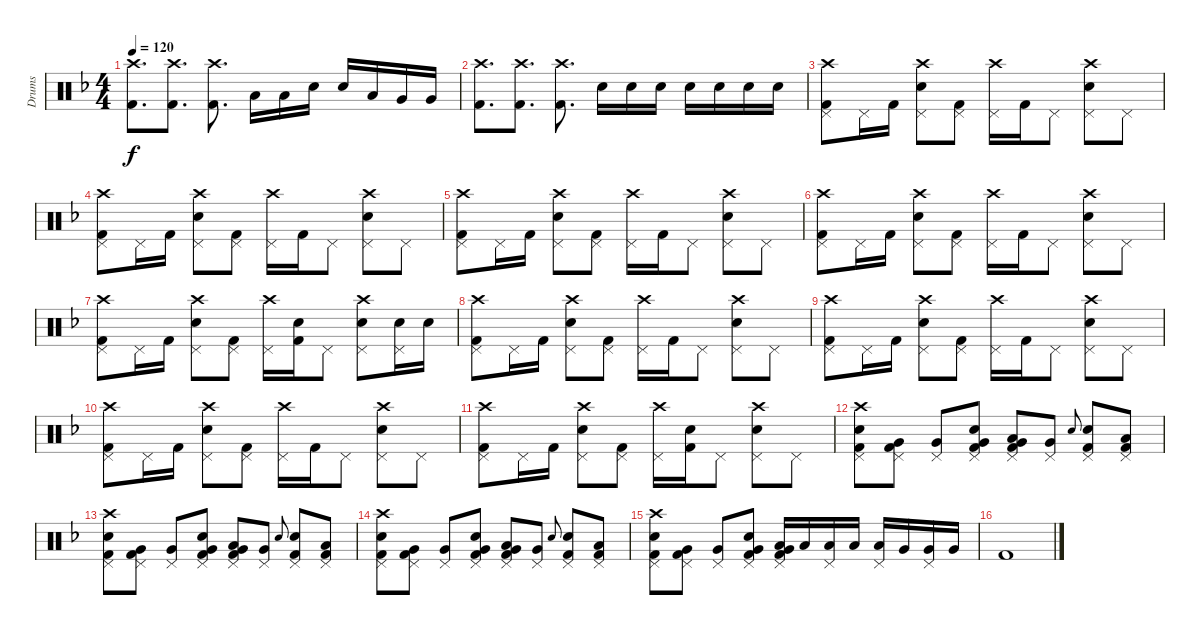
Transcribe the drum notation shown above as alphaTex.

\track ("Drums" "Drums") {instrument percussion}
\staff {score}
\articulation defaults
\ts (4 4)
\tempo 120
\clef neutral
\ks f
("Crash high (hit)" "Kick (hit) 2").8{d dy f} ("Crash high (hit)" "Kick (hit) 2").8{d} ("Crash high (hit)" "Kick (hit) 2").8{d} "Low Tom (hit)".16 "Low Tom (hit)".16 "Snare (hit) 2".16 "Snare (hit) 2".16 "Low Tom (hit)".16 "Very Low Tom (hit)".16 "Very Low Tom (hit)".16 |
("Crash high (hit)" "Kick (hit) 2").8{d} ("Crash high (hit)" "Kick (hit) 2").8{d} ("Crash high (hit)" "Kick (hit) 2").8{d} "Snare (hit) 2".16 "Snare (hit) 2".16 "Snare (hit) 2".16 "Snare (hit) 2".16 "Snare (hit) 2".16 "Snare (hit) 2".16 "Snare (hit) 2".16 |
("Crash high (hit)" "Kick (hit) 2" "Pedal Hi-Hat (hit)").8 "Pedal Hi-Hat (hit)".16 "Kick (hit) 2".16 ("Crash high (hit)" "Snare (hit) 2" "Pedal Hi-Hat (hit)").8 ("Kick (hit) 2" "Pedal Hi-Hat (hit)").8 ("Crash high (hit)" "Pedal Hi-Hat (hit)").16 "Kick (hit) 2".16 "Pedal Hi-Hat (hit)".8 ("Crash high (hit)" "Snare (hit) 2" "Pedal Hi-Hat (hit)").8 "Pedal Hi-Hat (hit)".8 |
("Crash high (hit)" "Kick (hit) 2" "Pedal Hi-Hat (hit)").8 "Pedal Hi-Hat (hit)".16 "Kick (hit) 2".16 ("Crash high (hit)" "Snare (hit) 2" "Pedal Hi-Hat (hit)").8 ("Kick (hit) 2" "Pedal Hi-Hat (hit)").8 ("Crash high (hit)" "Pedal Hi-Hat (hit)").16 "Kick (hit) 2".16 "Pedal Hi-Hat (hit)".8 ("Crash high (hit)" "Snare (hit) 2" "Pedal Hi-Hat (hit)").8 "Pedal Hi-Hat (hit)".8 |
("Crash high (hit)" "Kick (hit) 2" "Pedal Hi-Hat (hit)").8 "Pedal Hi-Hat (hit)".16 "Kick (hit) 2".16 ("Crash high (hit)" "Snare (hit) 2" "Pedal Hi-Hat (hit)").8 ("Kick (hit) 2" "Pedal Hi-Hat (hit)").8 ("Crash high (hit)" "Pedal Hi-Hat (hit)").16 "Kick (hit) 2".16 "Pedal Hi-Hat (hit)".8 ("Crash high (hit)" "Snare (hit) 2" "Pedal Hi-Hat (hit)").8 "Pedal Hi-Hat (hit)".8 |
("Crash high (hit)" "Kick (hit) 2" "Pedal Hi-Hat (hit)").8 "Pedal Hi-Hat (hit)".16 "Kick (hit) 2".16 ("Crash high (hit)" "Snare (hit) 2" "Pedal Hi-Hat (hit)").8 ("Kick (hit) 2" "Pedal Hi-Hat (hit)").8 ("Crash high (hit)" "Pedal Hi-Hat (hit)").16 "Kick (hit) 2".16 "Pedal Hi-Hat (hit)".8 ("Crash high (hit)" "Snare (hit) 2" "Pedal Hi-Hat (hit)").8 "Pedal Hi-Hat (hit)".8 |
("Crash high (hit)" "Kick (hit) 2" "Pedal Hi-Hat (hit)").8 "Pedal Hi-Hat (hit)".16 "Kick (hit) 2".16 ("Crash high (hit)" "Snare (hit) 2" "Pedal Hi-Hat (hit)").8 ("Kick (hit) 2" "Pedal Hi-Hat (hit)").8 ("Crash high (hit)" "Pedal Hi-Hat (hit)").16 ("Snare (hit) 2" "Kick (hit) 2").16 "Pedal Hi-Hat (hit)".8 ("Crash high (hit)" "Snare (hit) 2" "Pedal Hi-Hat (hit)").8 ("Snare (hit) 2" "Pedal Hi-Hat (hit)").16 "Snare (hit) 2".16 |
("Crash high (hit)" "Kick (hit) 2" "Pedal Hi-Hat (hit)").8 "Pedal Hi-Hat (hit)".16 "Kick (hit) 2".16 ("Crash high (hit)" "Snare (hit) 2" "Pedal Hi-Hat (hit)").8 ("Kick (hit) 2" "Pedal Hi-Hat (hit)").8 ("Crash high (hit)" "Pedal Hi-Hat (hit)").16 "Kick (hit) 2".16 "Pedal Hi-Hat (hit)".8 ("Crash high (hit)" "Snare (hit) 2" "Pedal Hi-Hat (hit)").8 "Pedal Hi-Hat (hit)".8 |
("Crash high (hit)" "Kick (hit) 2" "Pedal Hi-Hat (hit)").8 "Pedal Hi-Hat (hit)".16 "Kick (hit) 2".16 ("Crash high (hit)" "Snare (hit) 2" "Pedal Hi-Hat (hit)").8 ("Kick (hit) 2" "Pedal Hi-Hat (hit)").8 ("Crash high (hit)" "Pedal Hi-Hat (hit)").16 "Kick (hit) 2".16 "Pedal Hi-Hat (hit)".8 ("Crash high (hit)" "Snare (hit) 2" "Pedal Hi-Hat (hit)").8 "Pedal Hi-Hat (hit)".8 |
("Crash high (hit)" "Kick (hit) 2" "Pedal Hi-Hat (hit)").8 "Pedal Hi-Hat (hit)".16 "Kick (hit) 2".16 ("Crash high (hit)" "Snare (hit) 2" "Pedal Hi-Hat (hit)").8 ("Kick (hit) 2" "Pedal Hi-Hat (hit)").8 ("Crash high (hit)" "Pedal Hi-Hat (hit)").16 "Kick (hit) 2".16 "Pedal Hi-Hat (hit)".8 ("Crash high (hit)" "Snare (hit) 2" "Pedal Hi-Hat (hit)").8 "Pedal Hi-Hat (hit)".8 |
("Crash high (hit)" "Kick (hit) 2" "Pedal Hi-Hat (hit)").8 "Pedal Hi-Hat (hit)".16 "Kick (hit) 2".16 ("Crash high (hit)" "Snare (hit) 2" "Pedal Hi-Hat (hit)").8 ("Kick (hit) 2" "Pedal Hi-Hat (hit)").8 ("Crash high (hit)" "Pedal Hi-Hat (hit)").16 ("Snare (hit) 2" "Kick (hit) 2").16 "Pedal Hi-Hat (hit)".8 ("Crash high (hit)" "Snare (hit) 2" "Pedal Hi-Hat (hit)").8 "Pedal Hi-Hat (hit)".8 |
("Crash high (hit)" "Snare (hit) 2" "Kick (hit) 2" "Pedal Hi-Hat (hit)").8 ("Very Low Tom (hit)" "Kick (hit) 2" "Pedal Hi-Hat (hit)").8 ("Very Low Tom (hit)" "Pedal Hi-Hat (hit)").8 ("Snare (hit) 2" "Very Low Tom (hit)" "Kick (hit) 2" "Pedal Hi-Hat (hit)").8 ("Low Tom (hit)" "Very Low Tom (hit)" "Kick (hit) 2" "Pedal Hi-Hat (hit)").8 ("Very Low Tom (hit)" "Pedal Hi-Hat (hit)").8 "Snare (hit) 2".8{gr onbeat} ("Snare (hit) 2" "Kick (hit) 2" "Pedal Hi-Hat (hit)").8 ("Low Tom (hit)" "Kick (hit) 2" "Pedal Hi-Hat (hit)").8 |
("Crash high (hit)" "Snare (hit) 2" "Kick (hit) 2" "Pedal Hi-Hat (hit)").8 ("Very Low Tom (hit)" "Kick (hit) 2" "Pedal Hi-Hat (hit)").8 ("Very Low Tom (hit)" "Pedal Hi-Hat (hit)").8 ("Snare (hit) 2" "Very Low Tom (hit)" "Kick (hit) 2" "Pedal Hi-Hat (hit)").8 ("Low Tom (hit)" "Very Low Tom (hit)" "Kick (hit) 2" "Pedal Hi-Hat (hit)").8 ("Very Low Tom (hit)" "Pedal Hi-Hat (hit)").8 "Snare (hit) 2".8{gr onbeat} ("Snare (hit) 2" "Kick (hit) 2" "Pedal Hi-Hat (hit)").8 ("Low Tom (hit)" "Kick (hit) 2" "Pedal Hi-Hat (hit)").8 |
("Crash high (hit)" "Snare (hit) 2" "Kick (hit) 2" "Pedal Hi-Hat (hit)").8 ("Very Low Tom (hit)" "Kick (hit) 2" "Pedal Hi-Hat (hit)").8 ("Very Low Tom (hit)" "Pedal Hi-Hat (hit)").8 ("Snare (hit) 2" "Very Low Tom (hit)" "Kick (hit) 2" "Pedal Hi-Hat (hit)").8 ("Low Tom (hit)" "Very Low Tom (hit)" "Kick (hit) 2" "Pedal Hi-Hat (hit)").8 ("Very Low Tom (hit)" "Pedal Hi-Hat (hit)").8 "Snare (hit) 2".8{gr onbeat} ("Snare (hit) 2" "Kick (hit) 2" "Pedal Hi-Hat (hit)").8 ("Low Tom (hit)" "Kick (hit) 2" "Pedal Hi-Hat (hit)").8 |
("Crash high (hit)" "Snare (hit) 2" "Kick (hit) 2" "Pedal Hi-Hat (hit)").8 ("Very Low Tom (hit)" "Kick (hit) 2" "Pedal Hi-Hat (hit)").8 ("Very Low Tom (hit)" "Pedal Hi-Hat (hit)").8 ("Snare (hit) 2" "Very Low Tom (hit)" "Kick (hit) 2" "Pedal Hi-Hat (hit)").8 ("Low Tom (hit)" "Very Low Tom (hit)" "Kick (hit) 2" "Pedal Hi-Hat (hit)").16 "Low Tom (hit)".16 ("Low Floor Tom (hit)" "Pedal Hi-Hat (hit)").16 "Low Floor Tom (hit)".16 ("Low Floor Tom (hit)" "Pedal Hi-Hat (hit)").16 "Very Low Tom (hit)".16 ("Very Low Tom (hit)" "Pedal Hi-Hat (hit)").16 "Very Low Tom (hit)".16 |
"Kick (hit) 2".1
